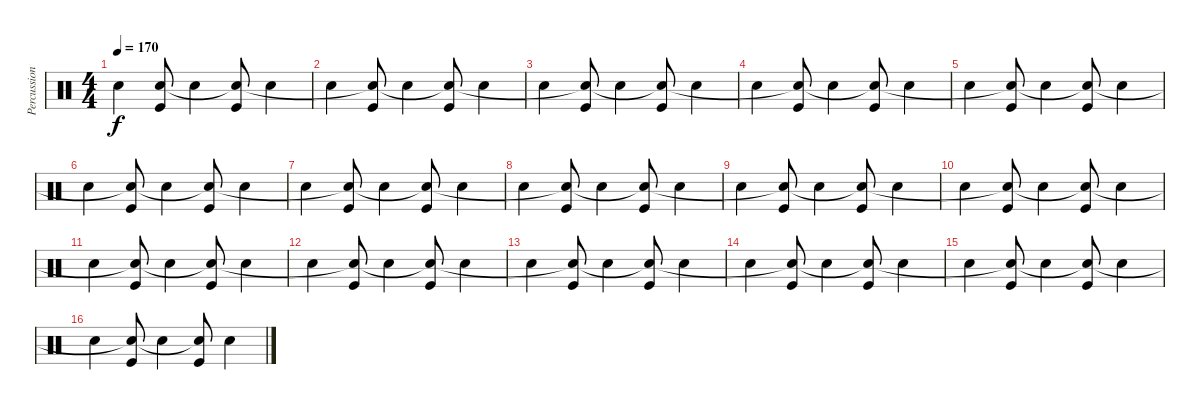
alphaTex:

\track ("Percussions" "Percussion") {instrument percussion}
\staff {score}
\articulation defaults
\ts (4 4)
\tempo 170
\clef neutral
\ks c "Snare (hit) 2".4{dy f}
("Kick (hit)" "Snare (hit) 2"{t}).8 "Snare (hit) 2".4 ("Kick (hit)" "Snare (hit)"{t}).8 "Snare (hit) 2".4 |
"Snare (hit) 2".4 ("Kick (hit)" "Snare (hit)"{t}).8 "Snare (hit) 2".4 ("Kick (hit)" "Snare (hit)"{t}).8 "Snare (hit) 2".4 |
"Snare (hit) 2".4 ("Kick (hit)" "Snare (hit)"{t}).8 "Snare (hit) 2".4 ("Kick (hit)" "Snare (hit)"{t}).8 "Snare (hit) 2".4 |
"Snare (hit) 2".4 ("Kick (hit)" "Snare (hit)"{t}).8 "Snare (hit) 2".4 ("Kick (hit)" "Snare (hit)"{t}).8 "Snare (hit) 2".4 |
"Snare (hit) 2".4 ("Kick (hit)" "Snare (hit) 2"{t}).8 "Snare (hit) 2".4 ("Kick (hit)" "Snare (hit)"{t}).8 "Snare (hit) 2".4 |
"Snare (hit) 2".4 ("Kick (hit)" "Snare (hit)"{t}).8 "Snare (hit) 2".4 ("Kick (hit)" "Snare (hit)"{t}).8 "Snare (hit) 2".4 |
"Snare (hit) 2".4 ("Kick (hit)" "Snare (hit)"{t}).8 "Snare (hit) 2".4 ("Kick (hit)" "Snare (hit)"{t}).8 "Snare (hit) 2".4 |
"Snare (hit) 2".4 ("Kick (hit)" "Snare (hit)"{t}).8 "Snare (hit) 2".4 ("Kick (hit)" "Snare (hit)"{t}).8 "Snare (hit) 2".4 |
"Snare (hit) 2".4 ("Kick (hit)" "Snare (hit) 2"{t}).8 "Snare (hit) 2".4 ("Kick (hit)" "Snare (hit)"{t}).8 "Snare (hit) 2".4 |
"Snare (hit) 2".4 ("Kick (hit)" "Snare (hit)"{t}).8 "Snare (hit) 2".4 ("Kick (hit)" "Snare (hit)"{t}).8 "Snare (hit) 2".4 |
"Snare (hit) 2".4 ("Kick (hit)" "Snare (hit)"{t}).8 "Snare (hit) 2".4 ("Kick (hit)" "Snare (hit)"{t}).8 "Snare (hit) 2".4 |
"Snare (hit) 2".4 ("Kick (hit)" "Snare (hit)"{t}).8 "Snare (hit) 2".4 ("Kick (hit)" "Snare (hit)"{t}).8 "Snare (hit) 2".4 |
"Snare (hit) 2".4 ("Kick (hit)" "Snare (hit) 2"{t}).8 "Snare (hit) 2".4 ("Kick (hit)" "Snare (hit)"{t}).8 "Snare (hit) 2".4 |
"Snare (hit) 2".4 ("Kick (hit)" "Snare (hit)"{t}).8 "Snare (hit) 2".4 ("Kick (hit)" "Snare (hit)"{t}).8 "Snare (hit) 2".4 |
"Snare (hit) 2".4 ("Kick (hit)" "Snare (hit)"{t}).8 "Snare (hit) 2".4 ("Kick (hit)" "Snare (hit)"{t}).8 "Snare (hit) 2".4 |
"Snare (hit) 2".4 ("Kick (hit)" "Snare (hit)"{t}).8 "Snare (hit) 2".4 ("Kick (hit)" "Snare (hit)"{t}).8 "Snare (hit) 2".4
